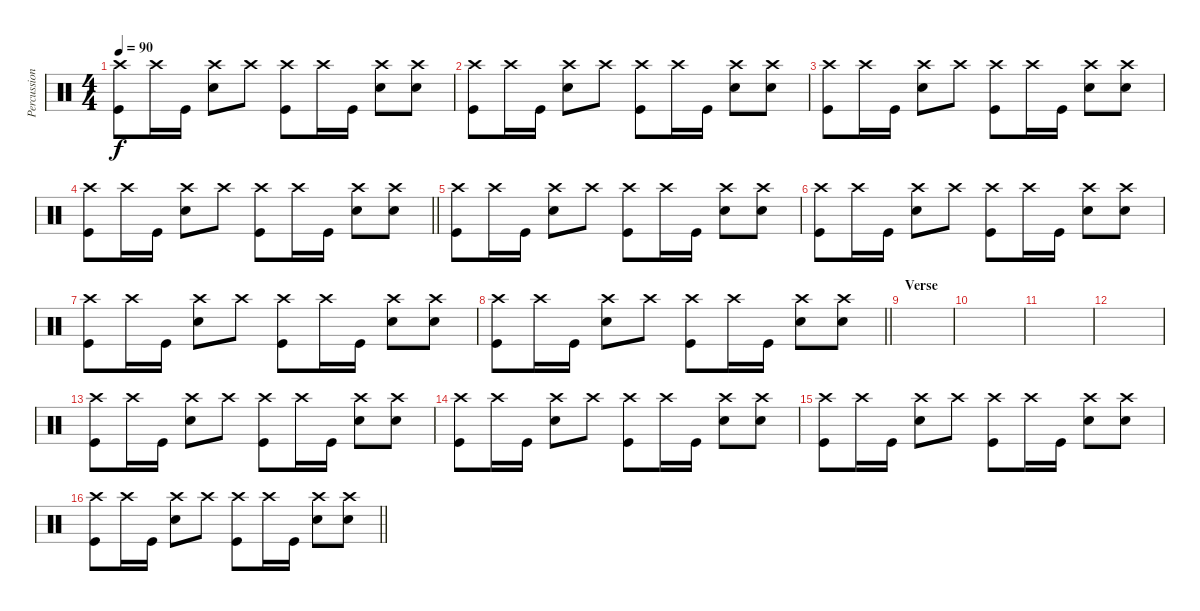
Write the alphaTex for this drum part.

\track ("Percussion" "Percussion") {instrument percussion}
\staff {score}
\articulation defaults
\ts (4 4)
\section ("" "")
\tempo 90
\clef neutral
\ks c
("Crash high (hit)" "Kick (hit)").8{dy f} "Crash high (hit)".16 "Kick (hit)".16 ("Crash high (hit)" "Snare (hit) 2").8 "Crash high (hit)".8 ("Crash high (hit)" "Kick (hit)").8 "Crash high (hit)".16 "Kick (hit)".16 ("Crash high (hit)" "Snare (hit) 2").8 ("Crash high (hit)" "Snare (hit) 2").8 |
("Crash high (hit)" "Kick (hit)").8 "Crash high (hit)".16 "Kick (hit)".16 ("Crash high (hit)" "Snare (hit) 2").8 "Crash high (hit)".8 ("Crash high (hit)" "Kick (hit)").8 "Crash high (hit)".16 "Kick (hit)".16 ("Crash high (hit)" "Snare (hit) 2").8 ("Crash high (hit)" "Snare (hit) 2").8 |
("Crash high (hit)" "Kick (hit)").8 "Crash high (hit)".16 "Kick (hit)".16 ("Crash high (hit)" "Snare (hit) 2").8 "Crash high (hit)".8 ("Crash high (hit)" "Kick (hit)").8 "Crash high (hit)".16 "Kick (hit)".16 ("Crash high (hit)" "Snare (hit) 2").8 ("Crash high (hit)" "Snare (hit) 2").8 |
\barLineRight lightlight
("Crash high (hit)" "Kick (hit)").8 "Crash high (hit)".16 "Kick (hit)".16 ("Crash high (hit)" "Snare (hit) 2").8 "Crash high (hit)".8 ("Crash high (hit)" "Kick (hit)").8 "Crash high (hit)".16 "Kick (hit)".16 ("Crash high (hit)" "Snare (hit) 2").8 ("Crash high (hit)" "Snare (hit) 2").8 |
("Crash high (hit)" "Kick (hit)").8 "Crash high (hit)".16 "Kick (hit)".16 ("Crash high (hit)" "Snare (hit) 2").8 "Crash high (hit)".8 ("Crash high (hit)" "Kick (hit)").8 "Crash high (hit)".16 "Kick (hit)".16 ("Crash high (hit)" "Snare (hit) 2").8 ("Crash high (hit)" "Snare (hit) 2").8 |
("Crash high (hit)" "Kick (hit)").8 "Crash high (hit)".16 "Kick (hit)".16 ("Crash high (hit)" "Snare (hit) 2").8 "Crash high (hit)".8 ("Crash high (hit)" "Kick (hit)").8 "Crash high (hit)".16 "Kick (hit)".16 ("Crash high (hit)" "Snare (hit) 2").8 ("Crash high (hit)" "Snare (hit) 2").8 |
("Crash high (hit)" "Kick (hit)").8 "Crash high (hit)".16 "Kick (hit)".16 ("Crash high (hit)" "Snare (hit) 2").8 "Crash high (hit)".8 ("Crash high (hit)" "Kick (hit)").8 "Crash high (hit)".16 "Kick (hit)".16 ("Crash high (hit)" "Snare (hit) 2").8 ("Crash high (hit)" "Snare (hit) 2").8 |
\barLineRight lightlight
("Crash high (hit)" "Kick (hit)").8 "Crash high (hit)".16 "Kick (hit)".16 ("Crash high (hit)" "Snare (hit) 2").8 "Crash high (hit)".8 ("Crash high (hit)" "Kick (hit)").8 "Crash high (hit)".16 "Kick (hit)".16 ("Crash high (hit)" "Snare (hit) 2").8 ("Crash high (hit)" "Snare (hit) 2").8 |
\section ("" "Verse ")
|
|
|
|
("Crash high (hit)" "Kick (hit)").8 "Crash high (hit)".16 "Kick (hit)".16 ("Crash high (hit)" "Snare (hit) 2").8 "Crash high (hit)".8 ("Crash high (hit)" "Kick (hit)").8 "Crash high (hit)".16 "Kick (hit)".16 ("Crash high (hit)" "Snare (hit) 2").8 ("Crash high (hit)" "Snare (hit) 2").8 |
("Crash high (hit)" "Kick (hit)").8 "Crash high (hit)".16 "Kick (hit)".16 ("Crash high (hit)" "Snare (hit) 2").8 "Crash high (hit)".8 ("Crash high (hit)" "Kick (hit)").8 "Crash high (hit)".16 "Kick (hit)".16 ("Crash high (hit)" "Snare (hit) 2").8 ("Crash high (hit)" "Snare (hit) 2").8 |
("Crash high (hit)" "Kick (hit)").8 "Crash high (hit)".16 "Kick (hit)".16 ("Crash high (hit)" "Snare (hit) 2").8 "Crash high (hit)".8 ("Crash high (hit)" "Kick (hit)").8 "Crash high (hit)".16 "Kick (hit)".16 ("Crash high (hit)" "Snare (hit) 2").8 ("Crash high (hit)" "Snare (hit) 2").8 |
\barLineRight lightlight
("Crash high (hit)" "Kick (hit)").8 "Crash high (hit)".16 "Kick (hit)".16 ("Crash high (hit)" "Snare (hit) 2").8 "Crash high (hit)".8 ("Crash high (hit)" "Kick (hit)").8 "Crash high (hit)".16 "Kick (hit)".16 ("Crash high (hit)" "Snare (hit) 2").8 ("Crash high (hit)" "Snare (hit) 2").8
